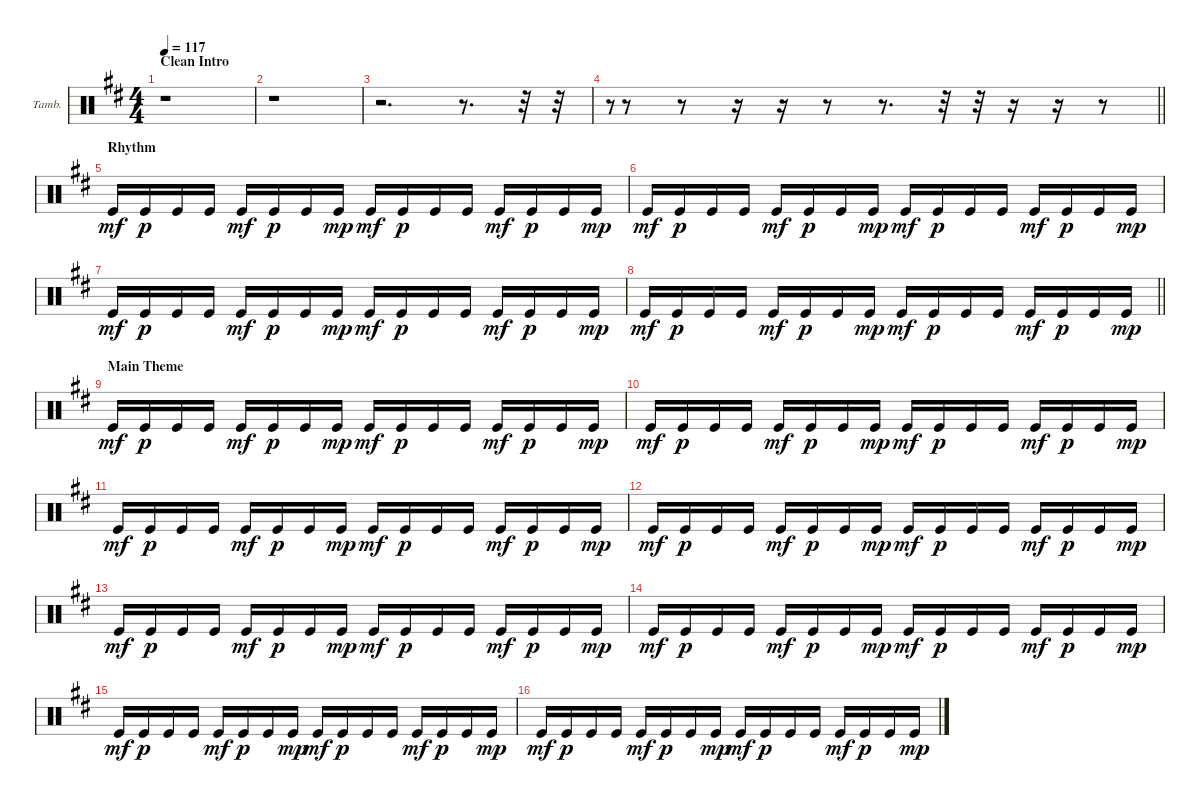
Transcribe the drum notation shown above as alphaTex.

\bracketExtendMode groupsimilarinstruments
\firstSystemTrackNameOrientation horizontal
\otherSystemsTrackNameOrientation horizontal
\track ("Tambourine" "Tamb.") {instrument percussion}
\staff {score}
\articulation defaults
\ts (4 4)
\beaming (8 2 2 2 2)
\section ("" "Clean Intro")
\tempo 117
\clef neutral
\ks d
r.1{dy mf} |
r.1 |
r.2{d} r.8{d} r.32 r.32 |
\barLineRight lightlight
r.8{gr} r.8 r.8 r.16 r.16 r.8 r.8{d} r.32 r.32 r.16 r.16 r.8 |
\section ("" "Rhythm")
"Kick (hit)".16 "Kick (hit)".16{dy p} "Kick (hit)".16 "Kick (hit)".16 "Kick (hit)".16{dy mf} "Kick (hit)".16{dy p} "Kick (hit)".16 "Kick (hit)".16{dy mp} "Kick (hit)".16{dy mf} "Kick (hit)".16{dy p} "Kick (hit)".16 "Kick (hit)".16 "Kick (hit)".16{dy mf} "Kick (hit)".16{dy p} "Kick (hit)".16 "Kick (hit)".16{dy mp} |
"Kick (hit)".16{dy mf} "Kick (hit)".16{dy p} "Kick (hit)".16 "Kick (hit)".16 "Kick (hit)".16{dy mf} "Kick (hit)".16{dy p} "Kick (hit)".16 "Kick (hit)".16{dy mp} "Kick (hit)".16{dy mf} "Kick (hit)".16{dy p} "Kick (hit)".16 "Kick (hit)".16 "Kick (hit)".16{dy mf} "Kick (hit)".16{dy p} "Kick (hit)".16 "Kick (hit)".16{dy mp} |
"Kick (hit)".16{dy mf} "Kick (hit)".16{dy p} "Kick (hit)".16 "Kick (hit)".16 "Kick (hit)".16{dy mf} "Kick (hit)".16{dy p} "Kick (hit)".16 "Kick (hit)".16{dy mp} "Kick (hit)".16{dy mf} "Kick (hit)".16{dy p} "Kick (hit)".16 "Kick (hit)".16 "Kick (hit)".16{dy mf} "Kick (hit)".16{dy p} "Kick (hit)".16 "Kick (hit)".16{dy mp} |
\barLineRight lightlight "Kick (hit)".16{dy mf} "Kick (hit)".16{dy p} "Kick (hit)".16 "Kick (hit)".16 "Kick (hit)".16{dy mf} "Kick (hit)".16{dy p} "Kick (hit)".16 "Kick (hit)".16{dy mp} "Kick (hit)".16{dy mf} "Kick (hit)".16{dy p} "Kick (hit)".16 "Kick (hit)".16 "Kick (hit)".16{dy mf} "Kick (hit)".16{dy p} "Kick (hit)".16 "Kick (hit)".16{dy mp}
|
\section ("" "Main Theme")
"Kick (hit)".16{dy mf} "Kick (hit)".16{dy p} "Kick (hit)".16 "Kick (hit)".16 "Kick (hit)".16{dy mf} "Kick (hit)".16{dy p} "Kick (hit)".16 "Kick (hit)".16{dy mp} "Kick (hit)".16{dy mf} "Kick (hit)".16{dy p} "Kick (hit)".16 "Kick (hit)".16 "Kick (hit)".16{dy mf} "Kick (hit)".16{dy p} "Kick (hit)".16 "Kick (hit)".16{dy mp} |
"Kick (hit)".16{dy mf} "Kick (hit)".16{dy p} "Kick (hit)".16 "Kick (hit)".16 "Kick (hit)".16{dy mf} "Kick (hit)".16{dy p} "Kick (hit)".16 "Kick (hit)".16{dy mp} "Kick (hit)".16{dy mf} "Kick (hit)".16{dy p} "Kick (hit)".16 "Kick (hit)".16 "Kick (hit)".16{dy mf} "Kick (hit)".16{dy p} "Kick (hit)".16 "Kick (hit)".16{dy mp} |
"Kick (hit)".16{dy mf} "Kick (hit)".16{dy p} "Kick (hit)".16 "Kick (hit)".16 "Kick (hit)".16{dy mf} "Kick (hit)".16{dy p} "Kick (hit)".16 "Kick (hit)".16{dy mp} "Kick (hit)".16{dy mf} "Kick (hit)".16{dy p} "Kick (hit)".16 "Kick (hit)".16 "Kick (hit)".16{dy mf} "Kick (hit)".16{dy p} "Kick (hit)".16 "Kick (hit)".16{dy mp} |
"Kick (hit)".16{dy mf} "Kick (hit)".16{dy p} "Kick (hit)".16 "Kick (hit)".16 "Kick (hit)".16{dy mf} "Kick (hit)".16{dy p} "Kick (hit)".16 "Kick (hit)".16{dy mp} "Kick (hit)".16{dy mf} "Kick (hit)".16{dy p} "Kick (hit)".16 "Kick (hit)".16 "Kick (hit)".16{dy mf} "Kick (hit)".16{dy p} "Kick (hit)".16 "Kick (hit)".16{dy mp} |
"Kick (hit)".16{dy mf} "Kick (hit)".16{dy p} "Kick (hit)".16 "Kick (hit)".16 "Kick (hit)".16{dy mf} "Kick (hit)".16{dy p} "Kick (hit)".16 "Kick (hit)".16{dy mp} "Kick (hit)".16{dy mf} "Kick (hit)".16{dy p} "Kick (hit)".16 "Kick (hit)".16 "Kick (hit)".16{dy mf} "Kick (hit)".16{dy p} "Kick (hit)".16 "Kick (hit)".16{dy mp} |
"Kick (hit)".16{dy mf} "Kick (hit)".16{dy p} "Kick (hit)".16 "Kick (hit)".16 "Kick (hit)".16{dy mf} "Kick (hit)".16{dy p} "Kick (hit)".16 "Kick (hit)".16{dy mp} "Kick (hit)".16{dy mf} "Kick (hit)".16{dy p} "Kick (hit)".16 "Kick (hit)".16 "Kick (hit)".16{dy mf} "Kick (hit)".16{dy p} "Kick (hit)".16 "Kick (hit)".16{dy mp} |
"Kick (hit)".16{dy mf} "Kick (hit)".16{dy p} "Kick (hit)".16 "Kick (hit)".16 "Kick (hit)".16{dy mf} "Kick (hit)".16{dy p} "Kick (hit)".16 "Kick (hit)".16{dy mp} "Kick (hit)".16{dy mf} "Kick (hit)".16{dy p} "Kick (hit)".16 "Kick (hit)".16 "Kick (hit)".16{dy mf} "Kick (hit)".16{dy p} "Kick (hit)".16 "Kick (hit)".16{dy mp} |
"Kick (hit)".16{dy mf} "Kick (hit)".16{dy p} "Kick (hit)".16 "Kick (hit)".16 "Kick (hit)".16{dy mf} "Kick (hit)".16{dy p} "Kick (hit)".16 "Kick (hit)".16{dy mp} "Kick (hit)".16{dy mf} "Kick (hit)".16{dy p} "Kick (hit)".16 "Kick (hit)".16 "Kick (hit)".16{dy mf} "Kick (hit)".16{dy p} "Kick (hit)".16 "Kick (hit)".16{dy mp}
